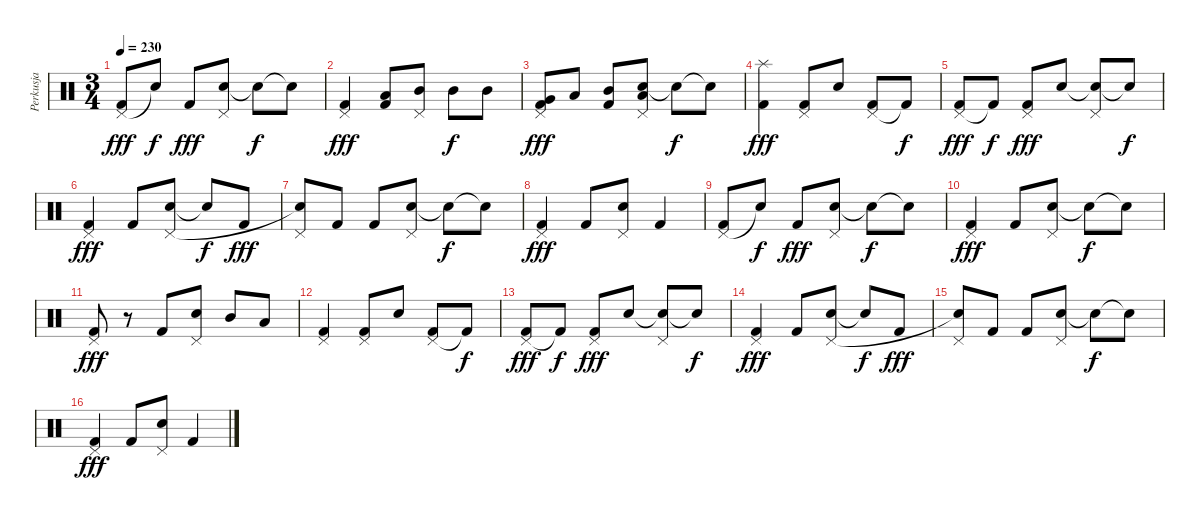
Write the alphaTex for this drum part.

\track ("Perkusja" "Perkusja") {instrument percussion}
\staff {score}
\articulation defaults
\ts (3 4)
\tempo 230
\clef neutral
\ks c
("Pedal Hi-Hat (hit)" "Kick (hit) 2").8{dy fff} "Snare (hit)"{t}.8{dy f} "Kick (hit) 2".8{dy fff} ("Snare (hit) 2" "Pedal Hi-Hat (hit)").8 "Snare (hit)"{t}.8{dy f} "Snare (hit)"{t}.8 |
("Pedal Hi-Hat (hit)" "Kick (hit) 2").4{dy fff} ("Low Tom (hit)" "Kick (hit) 2").8 ("Mid Tom (hit)" "Pedal Hi-Hat (hit)").8 "Mid Tom (hit)".8{dy f} "Mid Tom (hit)".8 |
("Very Low Tom (hit)" "Pedal Hi-Hat (hit)" "Kick (hit) 2").8{dy fff} "Low Tom (hit)".8 ("Mid Tom (hit)" "Kick (hit) 2").8 ("Snare (hit) 2" "Low Tom (hit)" "Pedal Hi-Hat (hit)").8 "Snare (hit)"{t}.8{dy f} "Snare (hit)"{t}.8 |
("Splash (hit)" "Kick (hit) 2").4{dy fff} ("Pedal Hi-Hat (hit)" "Kick (hit) 2").8 "Snare (hit) 2".8 ("Pedal Hi-Hat (hit)" "Kick (hit) 2").8 "Kick (hit) 2"{t}.8{dy f} |
("Pedal Hi-Hat (hit)" "Kick (hit) 2").8{dy fff} "Kick (hit) 2"{t}.8{dy f} ("Pedal Hi-Hat (hit)" "Kick (hit) 2").8{dy fff} "Snare (hit) 2".8 ("Snare (hit)"{t} "Pedal Hi-Hat (hit)").8 "Snare (hit)"{t}.8{dy f} |
("Pedal Hi-Hat (hit)" "Kick (hit) 2").4{dy fff} "Kick (hit) 2".8 ("Snare (hit) 2" "Pedal Hi-Hat (hit)").8 "Snare (hit)"{t}.8{dy f} "Kick (hit) 2".8{dy fff} |
("Pedal Hi-Hat (hit)" "Snare (hit)"{t}).8 "Kick (hit) 2".8 "Kick (hit) 2".8 ("Snare (hit) 2" "Pedal Hi-Hat (hit)").8 "Snare (hit)"{t}.8{dy f} "Snare (hit)"{t}.8 |
("Pedal Hi-Hat (hit)" "Kick (hit) 2").4{dy fff} "Kick (hit) 2".8 ("Snare (hit) 2" "Pedal Hi-Hat (hit)").8 "Kick (hit) 2".4 |
("Pedal Hi-Hat (hit)" "Kick (hit) 2").8 "Snare (hit)"{t}.8{dy f} "Kick (hit) 2".8{dy fff} ("Snare (hit) 2" "Pedal Hi-Hat (hit)").8 "Snare (hit)"{t}.8{dy f} "Snare (hit)"{t}.8 |
("Pedal Hi-Hat (hit)" "Kick (hit) 2").4{dy fff} "Kick (hit) 2".8 ("Snare (hit) 2" "Pedal Hi-Hat (hit)").8 "Snare (hit)"{t}.8{dy f} "Snare (hit)"{t}.8 |
("Pedal Hi-Hat (hit)" "Kick (hit) 2").8{dy fff} r.8 "Kick (hit) 2".8 ("Snare (hit) 2" "Pedal Hi-Hat (hit)").8 "Mid Tom (hit)".8 "Low Tom (hit)".8 |
("Pedal Hi-Hat (hit)" "Kick (hit) 2").4 ("Pedal Hi-Hat (hit)" "Kick (hit) 2").8 "Snare (hit) 2".8 ("Pedal Hi-Hat (hit)" "Kick (hit) 2").8 "Kick (hit) 2"{t}.8{dy f} |
("Pedal Hi-Hat (hit)" "Kick (hit) 2").8{dy fff} "Kick (hit) 2"{t}.8{dy f} ("Pedal Hi-Hat (hit)" "Kick (hit) 2").8{dy fff} "Snare (hit) 2".8 ("Snare (hit)"{t} "Pedal Hi-Hat (hit)").8 "Snare (hit)"{t}.8{dy f} |
("Pedal Hi-Hat (hit)" "Kick (hit) 2").4{dy fff} "Kick (hit) 2".8 ("Snare (hit) 2" "Pedal Hi-Hat (hit)").8 "Snare (hit)"{t}.8{dy f} "Kick (hit) 2".8{dy fff} |
("Pedal Hi-Hat (hit)" "Snare (hit)"{t}).8 "Kick (hit) 2".8 "Kick (hit) 2".8 ("Snare (hit) 2" "Pedal Hi-Hat (hit)").8 "Snare (hit)"{t}.8{dy f} "Snare (hit)"{t}.8 |
("Pedal Hi-Hat (hit)" "Kick (hit) 2").4{dy fff} "Kick (hit) 2".8 ("Snare (hit) 2" "Pedal Hi-Hat (hit)").8 "Kick (hit) 2".4
